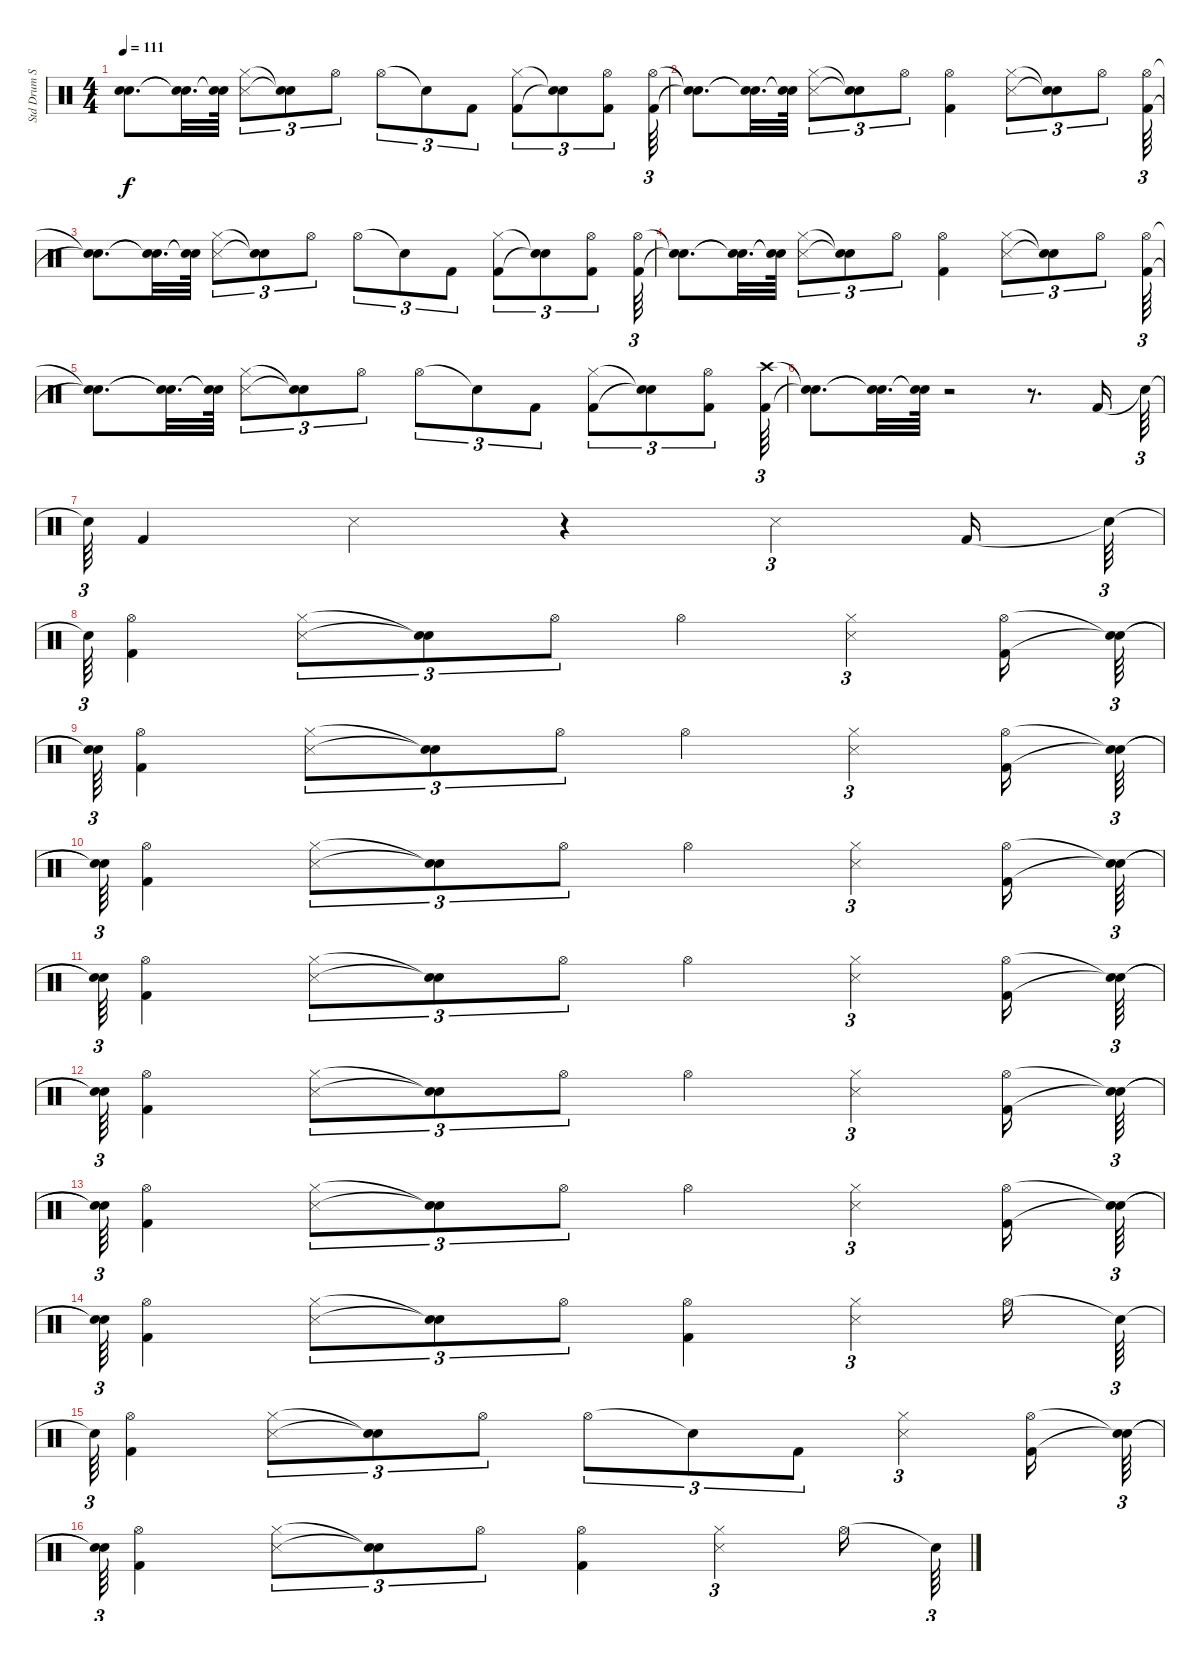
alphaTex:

\track ("Std Drum Set" "Std Drum S") {solo instrument percussion}
\staff {score}
\articulation defaults
\ts (4 4)
\tempo 111
\clef neutral
\ks c
("Snare (hit)"{t} "Snare (hit)"{t}).8{d dy f} ("Snare (hit)"{t} "Snare (hit)"{t}).32{d} ("Snare (hit)"{t} "Snare (hit)"{t}).64 ("Snare (side stick) 3" "Hi-Hat (closed)").8{tu (3 2)} ("Snare (hit)"{t} "Snare (hit)"{t}).8{tu (3 2)} "Hi-Hat (open)".8{tu (3 2)} "Hi-Hat (open)".8{tu (3 2)} "Snare (hit)"{t}.8{tu (3 2)} "Kick (hit) 2".8{tu (3 2)} ("Kick (hit) 2" "Hi-Hat (closed)").8{tu (3 2)} ("Snare (hit)"{t} "Snare (hit)"{t}).8{tu (3 2)} ("Kick (hit) 2" "Hi-Hat (open)").8{tu (3 2)} ("Kick (hit) 2" "Hi-Hat (open)").64{tu (3 2)} |
("Snare (hit)"{t} "Snare (hit)"{t}).8{d} ("Snare (hit)"{t} "Snare (hit)"{t}).32{d} ("Snare (hit)"{t} "Snare (hit)"{t}).64 ("Snare (side stick) 3" "Hi-Hat (closed)").8{tu (3 2)} ("Snare (hit)"{t} "Snare (hit)"{t}).8{tu (3 2)} "Hi-Hat (open)".8{tu (3 2)} ("Kick (hit) 2" "Hi-Hat (open)").4 ("Snare (side stick) 3" "Hi-Hat (closed)").8{tu (3 2)} ("Snare (hit)"{t} "Snare (hit)"{t}).8{tu (3 2)} "Hi-Hat (open)".8{tu (3 2)} ("Kick (hit) 2" "Hi-Hat (open)").64{tu (3 2)} |
("Snare (hit)"{t} "Snare (hit)"{t}).8{d} ("Snare (hit)"{t} "Snare (hit)"{t}).32{d} ("Snare (hit)"{t} "Snare (hit)"{t}).64 ("Snare (side stick) 3" "Hi-Hat (closed)").8{tu (3 2)} ("Snare (hit)"{t} "Snare (hit)"{t}).8{tu (3 2)} "Hi-Hat (open)".8{tu (3 2)} "Hi-Hat (open)".8{tu (3 2)} "Snare (hit)"{t}.8{tu (3 2)} "Kick (hit) 2".8{tu (3 2)} ("Kick (hit) 2" "Hi-Hat (closed)").8{tu (3 2)} ("Snare (hit)"{t} "Snare (hit)"{t}).8{tu (3 2)} ("Kick (hit) 2" "Hi-Hat (open)").8{tu (3 2)} ("Kick (hit) 2" "Hi-Hat (open)").64{tu (3 2)} |
("Snare (hit)"{t} "Snare (hit)"{t}).8{d} ("Snare (hit)"{t} "Snare (hit)"{t}).32{d} ("Snare (hit)"{t} "Snare (hit)"{t}).64 ("Snare (side stick) 3" "Hi-Hat (closed)").8{tu (3 2)} ("Snare (hit)"{t} "Snare (hit)"{t}).8{tu (3 2)} "Hi-Hat (open)".8{tu (3 2)} ("Kick (hit) 2" "Hi-Hat (open)").4 ("Snare (side stick) 3" "Hi-Hat (closed)").8{tu (3 2)} ("Snare (hit)"{t} "Snare (hit)"{t}).8{tu (3 2)} "Hi-Hat (open)".8{tu (3 2)} ("Kick (hit) 2" "Hi-Hat (open)").64{tu (3 2)} |
("Snare (hit)"{t} "Snare (hit)"{t}).8{d} ("Snare (hit)"{t} "Snare (hit)"{t}).32{d} ("Snare (hit)"{t} "Snare (hit)"{t}).64 ("Snare (side stick) 3" "Hi-Hat (closed)").8{tu (3 2)} ("Snare (hit)"{t} "Snare (hit)"{t}).8{tu (3 2)} "Hi-Hat (open)".8{tu (3 2)} "Hi-Hat (open)".8{tu (3 2)} "Snare (hit)"{t}.8{tu (3 2)} "Kick (hit) 2".8{tu (3 2)} ("Kick (hit) 2" "Hi-Hat (closed)").8{tu (3 2)} ("Snare (hit)"{t} "Snare (hit)"{t}).8{tu (3 2)} ("Kick (hit) 2" "Hi-Hat (open)").8{tu (3 2)} ("Kick (hit) 2" "Crash high (hit)").64{tu (3 2)} |
("Snare (hit)"{t} "Snare (hit)"{t}).8{d} ("Snare (hit)"{t} "Snare (hit)"{t}).32{d} ("Snare (hit)"{t} "Snare (hit)"{t}).64 r.2 r.8{d} "Kick (hit) 2".16 "Snare (hit)"{t}.64{tu (3 2)} |
"Snare (hit)"{t}.64{tu (3 2)} "Kick (hit) 2".4 "Snare (side stick) 3".4 r.4 "Snare (side stick) 3".4{tu (3 2)} "Kick (hit) 2".16 "Snare (hit)"{t}.64{tu (3 2)} |
"Snare (hit)"{t}.64{tu (3 2)} ("Kick (hit) 2" "Hi-Hat (open)").4 ("Snare (side stick) 3" "Hi-Hat (closed)").8{tu (3 2)} ("Snare (hit)"{t} "Snare (hit)"{t}).8{tu (3 2)} "Hi-Hat (open)".8{tu (3 2)} "Hi-Hat (open)".4 ("Snare (side stick) 3" "Hi-Hat (closed)").4{tu (3 2)} ("Kick (hit) 2" "Hi-Hat (open)").16 ("Snare (hit)"{t} "Snare (hit)"{t}).64{tu (3 2)} |
("Snare (hit)"{t} "Snare (hit)"{t}).64{tu (3 2)} ("Kick (hit) 2" "Hi-Hat (open)").4 ("Snare (side stick) 3" "Hi-Hat (closed)").8{tu (3 2)} ("Snare (hit)"{t} "Snare (hit)"{t}).8{tu (3 2)} "Hi-Hat (open)".8{tu (3 2)} "Hi-Hat (open)".4 ("Snare (side stick) 3" "Hi-Hat (closed)").4{tu (3 2)} ("Kick (hit) 2" "Hi-Hat (open)").16 ("Snare (hit)"{t} "Snare (hit)"{t}).64{tu (3 2)} |
("Snare (hit)"{t} "Snare (hit)"{t}).64{tu (3 2)} ("Kick (hit) 2" "Hi-Hat (open)").4 ("Snare (side stick) 3" "Hi-Hat (closed)").8{tu (3 2)} ("Snare (hit)"{t} "Snare (hit)"{t}).8{tu (3 2)} "Hi-Hat (open)".8{tu (3 2)} "Hi-Hat (open)".4 ("Snare (side stick) 3" "Hi-Hat (closed)").4{tu (3 2)} ("Kick (hit) 2" "Hi-Hat (open)").16 ("Snare (hit)"{t} "Snare (hit)"{t}).64{tu (3 2)} |
("Snare (hit)"{t} "Snare (hit)"{t}).64{tu (3 2)} ("Kick (hit) 2" "Hi-Hat (open)").4 ("Snare (side stick) 3" "Hi-Hat (closed)").8{tu (3 2)} ("Snare (hit)"{t} "Snare (hit)"{t}).8{tu (3 2)} "Hi-Hat (open)".8{tu (3 2)} "Hi-Hat (open)".4 ("Snare (side stick) 3" "Hi-Hat (closed)").4{tu (3 2)} ("Kick (hit) 2" "Hi-Hat (open)").16 ("Snare (hit)"{t} "Snare (hit)"{t}).64{tu (3 2)} |
("Snare (hit)"{t} "Snare (hit)"{t}).64{tu (3 2)} ("Kick (hit) 2" "Hi-Hat (open)").4 ("Snare (side stick) 3" "Hi-Hat (closed)").8{tu (3 2)} ("Snare (hit)"{t} "Snare (hit)"{t}).8{tu (3 2)} "Hi-Hat (open)".8{tu (3 2)} "Hi-Hat (open)".4 ("Snare (side stick) 3" "Hi-Hat (closed)").4{tu (3 2)} ("Kick (hit) 2" "Hi-Hat (open)").16 ("Snare (hit)"{t} "Snare (hit)"{t}).64{tu (3 2)} |
("Snare (hit)"{t} "Snare (hit)"{t}).64{tu (3 2)} ("Kick (hit) 2" "Hi-Hat (open)").4 ("Snare (side stick) 3" "Hi-Hat (closed)").8{tu (3 2)} ("Snare (hit)"{t} "Snare (hit)"{t}).8{tu (3 2)} "Hi-Hat (open)".8{tu (3 2)} "Hi-Hat (open)".4 ("Snare (side stick) 3" "Hi-Hat (closed)").4{tu (3 2)} ("Kick (hit) 2" "Hi-Hat (open)").16 ("Snare (hit)"{t} "Snare (hit)"{t}).64{tu (3 2)} |
("Snare (hit)"{t} "Snare (hit)"{t}).64{tu (3 2)} ("Kick (hit) 2" "Hi-Hat (open)").4 ("Snare (side stick) 3" "Hi-Hat (closed)").8{tu (3 2)} ("Snare (hit)"{t} "Snare (hit)"{t}).8{tu (3 2)} "Hi-Hat (open)".8{tu (3 2)} ("Kick (hit) 2" "Hi-Hat (open)").4 ("Snare (side stick) 3" "Hi-Hat (closed)").4{tu (3 2)} "Hi-Hat (open)".16 "Snare (hit)"{t}.64{tu (3 2)} |
"Snare (hit)"{t}.64{tu (3 2)} ("Kick (hit) 2" "Hi-Hat (open)").4 ("Snare (side stick) 3" "Hi-Hat (closed)").8{tu (3 2)} ("Snare (hit)"{t} "Snare (hit)"{t}).8{tu (3 2)} "Hi-Hat (open)".8{tu (3 2)} "Hi-Hat (open)".8{tu (3 2)} "Snare (hit)"{t}.8{tu (3 2)} "Kick (hit) 2".8{tu (3 2)} ("Snare (side stick) 3" "Hi-Hat (closed)").4{tu (3 2)} ("Kick (hit) 2" "Hi-Hat (open)").16 ("Snare (hit)"{t} "Snare (hit)"{t}).64{tu (3 2)} |
("Snare (hit)"{t} "Snare (hit)"{t}).64{tu (3 2)} ("Kick (hit) 2" "Hi-Hat (open)").4 ("Snare (side stick) 3" "Hi-Hat (closed)").8{tu (3 2)} ("Snare (hit)"{t} "Snare (hit)"{t}).8{tu (3 2)} "Hi-Hat (open)".8{tu (3 2)} ("Kick (hit) 2" "Hi-Hat (open)").4 ("Snare (side stick) 3" "Hi-Hat (closed)").4{tu (3 2)} "Hi-Hat (open)".16 "Snare (hit)"{t}.64{tu (3 2)}
